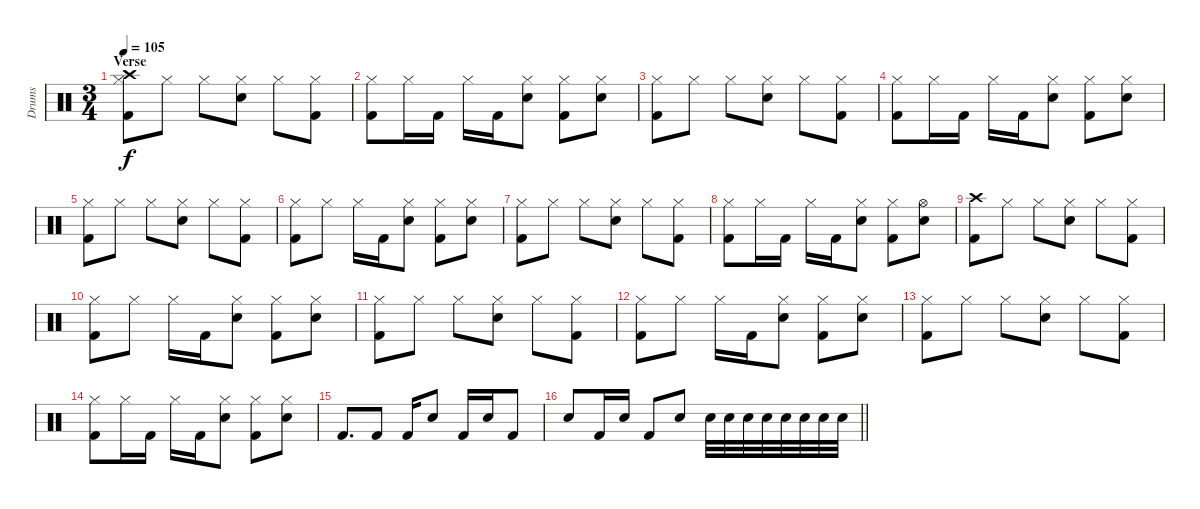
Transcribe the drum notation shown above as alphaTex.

\track ("Drums" "Drums") {instrument percussion}
\staff {score}
\articulation defaults
\ts (3 4)
\section ("" "Verse")
\tempo 105
\clef neutral
\ks c
("Crash high (hit)" "Hi-Hat (closed)" "Kick (hit) 2").8{dy f} "Hi-Hat (closed)".8 "Hi-Hat (closed)".8 ("Hi-Hat (closed)" "Electric Snare (hit)").8 "Hi-Hat (closed)".8 ("Hi-Hat (closed)" "Kick (hit) 2").8 |
("Hi-Hat (closed)" "Kick (hit) 2").8 "Hi-Hat (closed)".16 "Kick (hit) 2".16 "Hi-Hat (closed)".16 "Kick (hit) 2".16 ("Hi-Hat (closed)" "Electric Snare (hit)").8 ("Hi-Hat (closed)" "Kick (hit) 2").8 ("Hi-Hat (closed)" "Electric Snare (hit)").8 |
("Hi-Hat (closed)" "Kick (hit) 2").8 "Hi-Hat (closed)".8 "Hi-Hat (closed)".8 ("Hi-Hat (closed)" "Electric Snare (hit)").8 "Hi-Hat (closed)".8 ("Hi-Hat (closed)" "Kick (hit) 2").8 |
("Hi-Hat (closed)" "Kick (hit) 2").8 "Hi-Hat (closed)".16 "Kick (hit) 2".16 "Hi-Hat (closed)".16 "Kick (hit) 2".16 ("Hi-Hat (closed)" "Electric Snare (hit)").8 ("Hi-Hat (closed)" "Kick (hit) 2").8 ("Hi-Hat (closed)" "Electric Snare (hit)").8 |
("Hi-Hat (closed)" "Kick (hit) 2").8 "Hi-Hat (closed)".8 "Hi-Hat (closed)".8 ("Hi-Hat (closed)" "Electric Snare (hit)").8 "Hi-Hat (closed)".8 ("Hi-Hat (closed)" "Kick (hit) 2").8 |
("Hi-Hat (closed)" "Kick (hit) 2").8 "Hi-Hat (closed)".8 "Hi-Hat (closed)".16 "Kick (hit) 2".16 ("Hi-Hat (closed)" "Electric Snare (hit)").8 ("Hi-Hat (closed)" "Kick (hit) 2").8 ("Hi-Hat (closed)" "Electric Snare (hit)").8 |
("Hi-Hat (closed)" "Kick (hit) 2").8 "Hi-Hat (closed)".8 "Hi-Hat (closed)".8 ("Hi-Hat (closed)" "Electric Snare (hit)").8 "Hi-Hat (closed)".8 ("Hi-Hat (closed)" "Kick (hit) 2").8 |
("Hi-Hat (closed)" "Kick (hit) 2").8 "Hi-Hat (closed)".16 "Kick (hit) 2".16 "Hi-Hat (closed)".16 "Kick (hit) 2".16 ("Hi-Hat (closed)" "Electric Snare (hit)").8 ("Hi-Hat (closed)" "Kick (hit) 2").8 ("Hi-Hat (open)" "Electric Snare (hit)").8 |
("Crash high (hit)" "Kick (hit) 2").8 "Hi-Hat (closed)".8 "Hi-Hat (closed)".8 ("Hi-Hat (closed)" "Electric Snare (hit)").8 "Hi-Hat (closed)".8 ("Hi-Hat (closed)" "Kick (hit) 2").8 |
("Hi-Hat (closed)" "Kick (hit) 2").8 "Hi-Hat (closed)".8 "Hi-Hat (closed)".16 "Kick (hit) 2".16 ("Hi-Hat (closed)" "Electric Snare (hit)").8 ("Hi-Hat (closed)" "Kick (hit) 2").8 ("Hi-Hat (closed)" "Electric Snare (hit)").8 |
("Hi-Hat (closed)" "Kick (hit) 2").8 "Hi-Hat (closed)".8 "Hi-Hat (closed)".8 ("Hi-Hat (closed)" "Electric Snare (hit)").8 "Hi-Hat (closed)".8 ("Hi-Hat (closed)" "Kick (hit) 2").8 |
("Hi-Hat (closed)" "Kick (hit) 2").8 "Hi-Hat (closed)".8 "Hi-Hat (closed)".16 "Kick (hit) 2".16 ("Hi-Hat (closed)" "Electric Snare (hit)").8 ("Hi-Hat (closed)" "Kick (hit) 2").8 ("Hi-Hat (closed)" "Electric Snare (hit)").8 |
("Hi-Hat (closed)" "Kick (hit) 2").8 "Hi-Hat (closed)".8 "Hi-Hat (closed)".8 ("Hi-Hat (closed)" "Electric Snare (hit)").8 "Hi-Hat (closed)".8 ("Hi-Hat (closed)" "Kick (hit) 2").8 |
("Hi-Hat (closed)" "Kick (hit) 2").8 "Hi-Hat (closed)".16 "Kick (hit) 2".16 "Hi-Hat (closed)".16 "Kick (hit) 2".16 ("Hi-Hat (closed)" "Electric Snare (hit)").8 ("Hi-Hat (closed)" "Kick (hit) 2").8 ("Hi-Hat (closed)" "Electric Snare (hit)").8 |
"Kick (hit) 2".8{d} "Kick (hit) 2".8 "Kick (hit) 2".16 "Electric Snare (hit)".8 "Kick (hit) 2".16 "Electric Snare (hit)".16 "Kick (hit) 2".8 |
\barLineRight lightlight "Electric Snare (hit)".8 "Kick (hit) 2".16 "Electric Snare (hit)".16 "Kick (hit) 2".8 "Electric Snare (hit)".8 "Electric Snare (hit)".32 "Electric Snare (hit)".32 "Electric Snare (hit)".32 "Electric Snare (hit)".32 "Electric Snare (hit)".32 "Electric Snare (hit)".32 "Electric Snare (hit)".32 "Electric Snare (hit)".32
